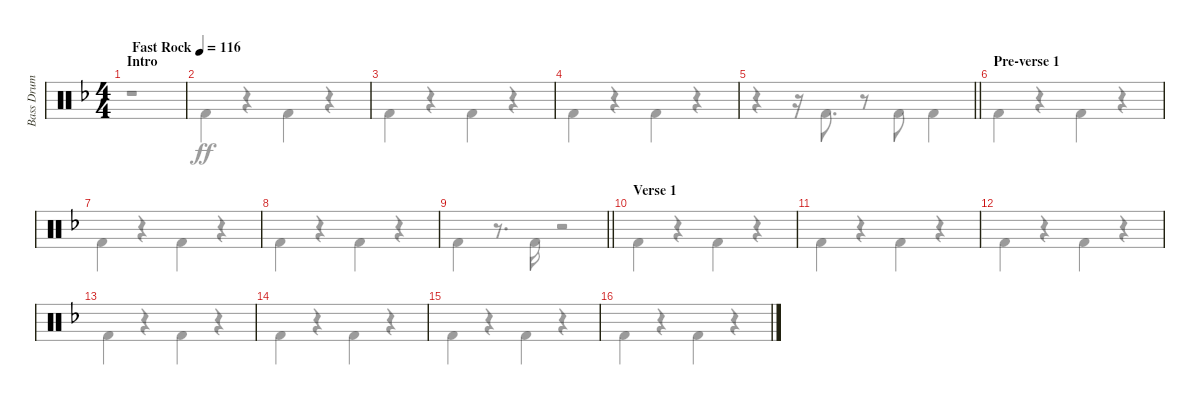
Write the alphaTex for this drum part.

\track ("Bass Drum" "Bass Drum") {instrument percussion}
\staff {score}
\articulation defaults
\voice
\ts (4 4)
\section ("" "Intro")
\tempo (116 "Fast Rock")
\clef neutral
\ks dminor
|
\ks f
|
|
|
\barLineRight lightlight
|
\section ("" "Pre-verse 1")
|
|
|
\barLineRight lightlight
|
\section ("" "Verse 1")
|
|
|
|
|
|
\voice
\clef neutral
\ks dminor
r.1{dy ff} |
\ks f "Kick (hit) 2".4
r.4 "Kick (hit) 2".4 r.4 |
"Kick (hit) 2".4 r.4 "Kick (hit) 2".4 r.4 |
"Kick (hit) 2".4 r.4 "Kick (hit) 2".4 r.4 |
\barLineRight lightlight
r.4 r.16 "Kick (hit) 2".8{d} r.8 "Kick (hit) 2".8 "Kick (hit) 2".4 |
"Kick (hit) 2".4 r.4 "Kick (hit) 2".4 r.4 |
"Kick (hit) 2".4 r.4 "Kick (hit) 2".4 r.4 |
"Kick (hit) 2".4 r.4 "Kick (hit) 2".4 r.4 |
\barLineRight lightlight "Kick (hit) 2".4
r.8{d} "Kick (hit) 2".16 r.2 |
"Kick (hit) 2".4 r.4 "Kick (hit) 2".4 r.4 |
"Kick (hit) 2".4 r.4 "Kick (hit) 2".4 r.4 |
"Kick (hit) 2".4 r.4 "Kick (hit) 2".4 r.4 |
"Kick (hit) 2".4 r.4 "Kick (hit) 2".4 r.4 |
"Kick (hit) 2".4 r.4 "Kick (hit) 2".4 r.4 |
"Kick (hit) 2".4 r.4 "Kick (hit) 2".4 r.4 |
"Kick (hit) 2".4 r.4 "Kick (hit) 2".4 r.4
